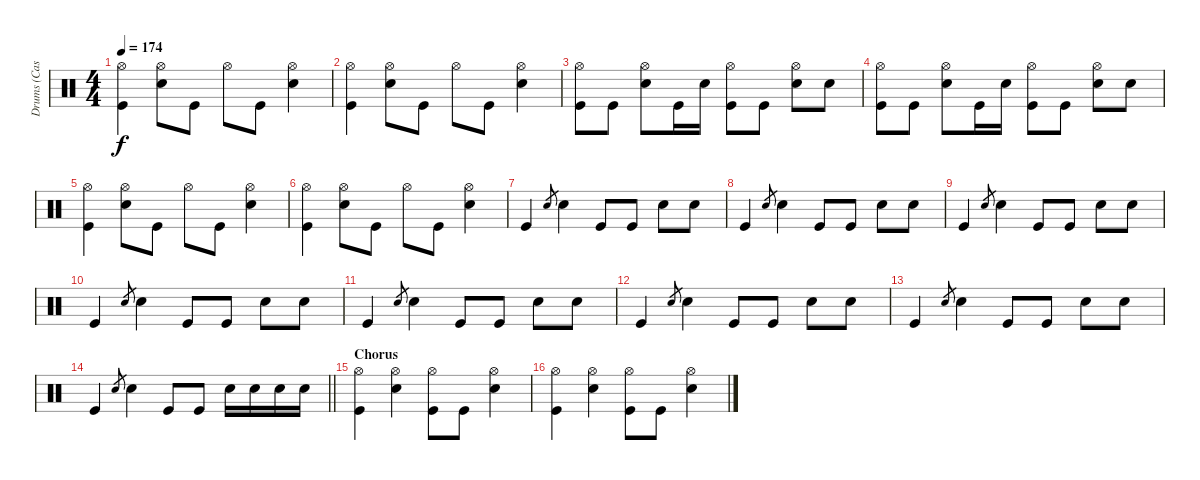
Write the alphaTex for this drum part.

\track ("Drums (Casey Royer)" "Drums (Cas") {instrument percussion}
\staff {score}
\articulation defaults
\ts (4 4)
\tempo 174
\clef neutral
\ks c
("Hi-Hat (open)" "Kick (hit)").4{dy f} ("Hi-Hat (open)" "Snare (hit) 2").8 "Kick (hit)".8 "Hi-Hat (open)".8 "Kick (hit)".8 ("Hi-Hat (open)" "Snare (hit) 2").4 |
("Hi-Hat (open)" "Kick (hit)").4 ("Hi-Hat (open)" "Snare (hit) 2").8 "Kick (hit)".8 "Hi-Hat (open)".8 "Kick (hit)".8 ("Hi-Hat (open)" "Snare (hit) 2").4 |
("Hi-Hat (open)" "Kick (hit)").8 "Kick (hit)".8 ("Hi-Hat (open)" "Snare (hit) 2").8 "Kick (hit)".16 "Snare (hit) 2".16 ("Hi-Hat (open)" "Kick (hit)").8 "Kick (hit)".8 ("Hi-Hat (open)" "Snare (hit) 2").8 "Snare (hit) 2".8 |
("Hi-Hat (open)" "Kick (hit)").8 "Kick (hit)".8 ("Hi-Hat (open)" "Snare (hit) 2").8 "Kick (hit)".16 "Snare (hit) 2".16 ("Hi-Hat (open)" "Kick (hit)").8 "Kick (hit)".8 ("Hi-Hat (open)" "Snare (hit) 2").8 "Snare (hit) 2".8 |
("Hi-Hat (open)" "Kick (hit)").4 ("Hi-Hat (open)" "Snare (hit) 2").8 "Kick (hit)".8 "Hi-Hat (open)".8 "Kick (hit)".8 ("Hi-Hat (open)" "Snare (hit) 2").4 |
("Hi-Hat (open)" "Kick (hit)").4 ("Hi-Hat (open)" "Snare (hit) 2").8 "Kick (hit)".8 "Hi-Hat (open)".8 "Kick (hit)".8 ("Hi-Hat (open)" "Snare (hit) 2").4 |
"Kick (hit)".4 "Snare (hit) 2".8{gr} "Snare (hit) 2".4 "Kick (hit)".8 "Kick (hit)".8 "Snare (hit) 2".8 "Snare (hit) 2".8 |
"Kick (hit)".4 "Snare (hit) 2".8{gr} "Snare (hit) 2".4 "Kick (hit)".8 "Kick (hit)".8 "Snare (hit) 2".8 "Snare (hit) 2".8 |
"Kick (hit)".4 "Snare (hit) 2".8{gr} "Snare (hit) 2".4 "Kick (hit)".8 "Kick (hit)".8 "Snare (hit) 2".8 "Snare (hit) 2".8 |
"Kick (hit)".4 "Snare (hit) 2".8{gr} "Snare (hit) 2".4 "Kick (hit)".8 "Kick (hit)".8 "Snare (hit) 2".8 "Snare (hit) 2".8 |
"Kick (hit)".4 "Snare (hit) 2".8{gr} "Snare (hit) 2".4 "Kick (hit)".8 "Kick (hit)".8 "Snare (hit) 2".8 "Snare (hit) 2".8 |
"Kick (hit)".4 "Snare (hit) 2".8{gr} "Snare (hit) 2".4 "Kick (hit)".8 "Kick (hit)".8 "Snare (hit) 2".8 "Snare (hit) 2".8 |
"Kick (hit)".4 "Snare (hit) 2".8{gr} "Snare (hit) 2".4 "Kick (hit)".8 "Kick (hit)".8 "Snare (hit) 2".8 "Snare (hit) 2".8 |
\barLineRight lightlight "Kick (hit)".4 "Snare (hit) 2".8{gr} "Snare (hit) 2".4 "Kick (hit)".8 "Kick (hit)".8 "Snare (hit) 2".16 "Snare (hit) 2".16 "Snare (hit) 2".16 "Snare (hit) 2".16
|
\section ("" "Chorus")
("Hi-Hat (open)" "Kick (hit)").4 ("Hi-Hat (open)" "Snare (hit) 2").4 ("Hi-Hat (open)" "Kick (hit)").8 "Kick (hit)".8 ("Hi-Hat (open)" "Snare (hit) 2").4 |
("Hi-Hat (open)" "Kick (hit)").4 ("Hi-Hat (open)" "Snare (hit) 2").4 ("Hi-Hat (open)" "Kick (hit)").8 "Kick (hit)".8 ("Hi-Hat (open)" "Snare (hit) 2").4
